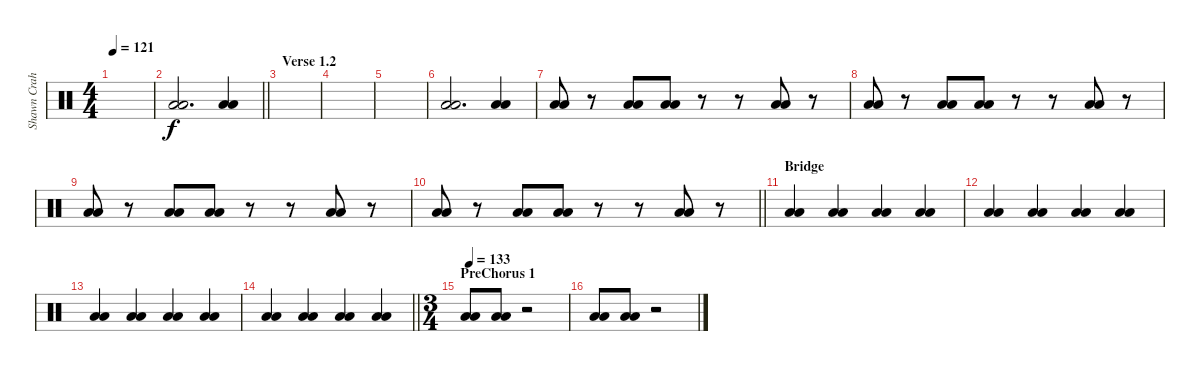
\track ("Shawn Crahan" "Shawn Crah") {instrument percussion}
\staff {score}
\articulation defaults
\ts (4 4)
\tempo 121
\clef neutral
\ks c
|
\barLineRight lightlight
("Low Floor Tom (hit)" "Low Floor Tom (hit)").2{d} ("Low Floor Tom (hit)" "Low Floor Tom (hit)").4 |
\section ("" "Verse 1.2")
|
|
|
("Low Floor Tom (hit)" "Low Floor Tom (hit)").2{d} ("Low Floor Tom (hit)" "Low Floor Tom (hit)").4 |
("Low Floor Tom (hit)" "Low Floor Tom (hit)").8 r.8 ("Low Floor Tom (hit)" "Low Floor Tom (hit)").8 ("Low Floor Tom (hit)" "Low Floor Tom (hit)").8 r.8 r.8 ("Low Floor Tom (hit)" "Low Floor Tom (hit)").8 r.8 |
("Low Floor Tom (hit)" "Low Floor Tom (hit)").8 r.8 ("Low Floor Tom (hit)" "Low Floor Tom (hit)").8 ("Low Floor Tom (hit)" "Low Floor Tom (hit)").8 r.8 r.8 ("Low Floor Tom (hit)" "Low Floor Tom (hit)").8 r.8 |
("Low Floor Tom (hit)" "Low Floor Tom (hit)").8 r.8 ("Low Floor Tom (hit)" "Low Floor Tom (hit)").8 ("Low Floor Tom (hit)" "Low Floor Tom (hit)").8 r.8 r.8 ("Low Floor Tom (hit)" "Low Floor Tom (hit)").8 r.8 |
\barLineRight lightlight
("Low Floor Tom (hit)" "Low Floor Tom (hit)").8 r.8 ("Low Floor Tom (hit)" "Low Floor Tom (hit)").8 ("Low Floor Tom (hit)" "Low Floor Tom (hit)").8 r.8 r.8 ("Low Floor Tom (hit)" "Low Floor Tom (hit)").8 r.8 |
\section ("" "Bridge")
("Low Floor Tom (hit)" "Low Floor Tom (hit)").4 ("Low Floor Tom (hit)" "Low Floor Tom (hit)").4 ("Low Floor Tom (hit)" "Low Floor Tom (hit)").4 ("Low Floor Tom (hit)" "Low Floor Tom (hit)").4 |
("Low Floor Tom (hit)" "Low Floor Tom (hit)").4 ("Low Floor Tom (hit)" "Low Floor Tom (hit)").4 ("Low Floor Tom (hit)" "Low Floor Tom (hit)").4 ("Low Floor Tom (hit)" "Low Floor Tom (hit)").4 |
("Low Floor Tom (hit)" "Low Floor Tom (hit)").4 ("Low Floor Tom (hit)" "Low Floor Tom (hit)").4 ("Low Floor Tom (hit)" "Low Floor Tom (hit)").4 ("Low Floor Tom (hit)" "Low Floor Tom (hit)").4 |
\barLineRight lightlight
("Low Floor Tom (hit)" "Low Floor Tom (hit)").4 ("Low Floor Tom (hit)" "Low Floor Tom (hit)").4 ("Low Floor Tom (hit)" "Low Floor Tom (hit)").4 ("Low Floor Tom (hit)" "Low Floor Tom (hit)").4 |
\ts (3 4)
\section ("" "PreChorus 1")
\tempo 133
("Low Floor Tom (hit)" "Low Floor Tom (hit)").8 ("Low Floor Tom (hit)" "Low Floor Tom (hit)").8 r.2 |
("Low Floor Tom (hit)" "Low Floor Tom (hit)").8 ("Low Floor Tom (hit)" "Low Floor Tom (hit)").8 r.2
